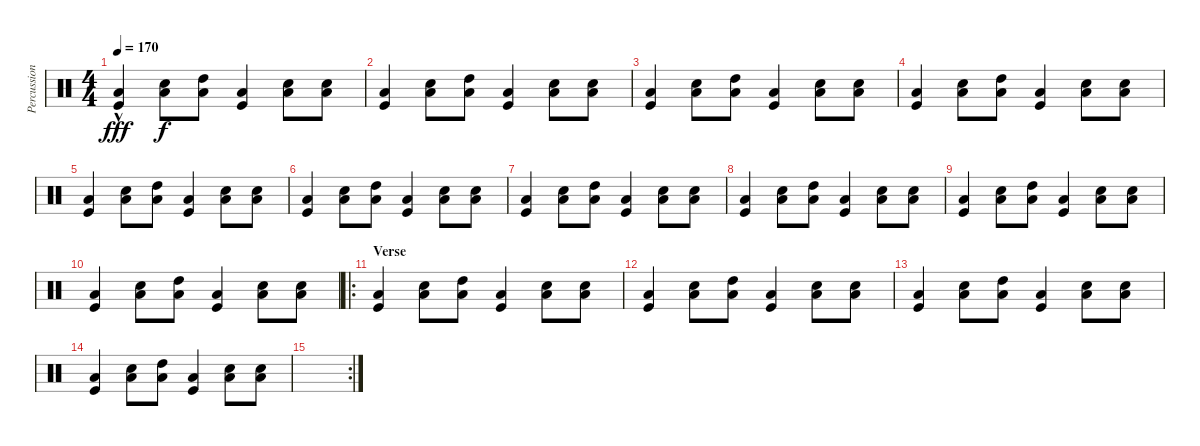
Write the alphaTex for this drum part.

\track ("Percussion" "Percussion") {instrument percussion}
\staff {score}
\articulation defaults
\ts (4 4)
\tempo 170
\clef neutral
\ks c
("Kick (hit)"{hac} "Low Tom (hit)"{hac}).4{dy fff} ("Low Tom (hit)" "Snare (hit) 2").8{dy f} ("Low Tom (hit)" "High Tom (hit)").8 ("Kick (hit)" "Low Tom (hit)").4 ("Low Tom (hit)" "Snare (hit) 2").8 ("Low Tom (hit)" "Snare (hit) 2").8 |
("Kick (hit)" "Low Tom (hit)").4 ("Low Tom (hit)" "Snare (hit) 2").8 ("Low Tom (hit)" "High Tom (hit)").8 ("Kick (hit)" "Low Tom (hit)").4 ("Low Tom (hit)" "Snare (hit) 2").8 ("Low Tom (hit)" "Snare (hit) 2").8 |
("Kick (hit)" "Low Tom (hit)").4 ("Low Tom (hit)" "Snare (hit) 2").8 ("Low Tom (hit)" "High Tom (hit)").8 ("Kick (hit)" "Low Tom (hit)").4 ("Low Tom (hit)" "Snare (hit) 2").8 ("Low Tom (hit)" "Snare (hit) 2").8 |
("Kick (hit)" "Low Tom (hit)").4 ("Low Tom (hit)" "Snare (hit) 2").8 ("Low Tom (hit)" "High Tom (hit)").8 ("Kick (hit)" "Low Tom (hit)").4 ("Low Tom (hit)" "Snare (hit) 2").8 ("Low Tom (hit)" "Snare (hit) 2").8 |
("Kick (hit)" "Low Tom (hit)").4 ("Low Tom (hit)" "Snare (hit) 2").8 ("Low Tom (hit)" "High Tom (hit)").8 ("Kick (hit)" "Low Tom (hit)").4 ("Low Tom (hit)" "Snare (hit) 2").8 ("Low Tom (hit)" "Snare (hit) 2").8 |
("Kick (hit)" "Low Tom (hit)").4 ("Low Tom (hit)" "Snare (hit) 2").8 ("Low Tom (hit)" "High Tom (hit)").8 ("Kick (hit)" "Low Tom (hit)").4 ("Low Tom (hit)" "Snare (hit) 2").8 ("Low Tom (hit)" "Snare (hit) 2").8 |
("Kick (hit)" "Low Tom (hit)").4 ("Low Tom (hit)" "Snare (hit) 2").8 ("Low Tom (hit)" "High Tom (hit)").8 ("Kick (hit)" "Low Tom (hit)").4 ("Low Tom (hit)" "Snare (hit) 2").8 ("Low Tom (hit)" "Snare (hit) 2").8 |
("Kick (hit)" "Low Tom (hit)").4 ("Low Tom (hit)" "Snare (hit) 2").8 ("Low Tom (hit)" "High Tom (hit)").8 ("Kick (hit)" "Low Tom (hit)").4 ("Low Tom (hit)" "Snare (hit) 2").8 ("Low Tom (hit)" "Snare (hit) 2").8 |
("Kick (hit)" "Low Tom (hit)").4 ("Low Tom (hit)" "Snare (hit) 2").8 ("Low Tom (hit)" "High Tom (hit)").8 ("Kick (hit)" "Low Tom (hit)").4 ("Low Tom (hit)" "Snare (hit) 2").8 ("Low Tom (hit)" "Snare (hit) 2").8 |
("Kick (hit)" "Low Tom (hit)").4 ("Low Tom (hit)" "Snare (hit) 2").8 ("Low Tom (hit)" "High Tom (hit)").8 ("Kick (hit)" "Low Tom (hit)").4 ("Low Tom (hit)" "Snare (hit) 2").8 ("Low Tom (hit)" "Snare (hit) 2").8 |
\ro
\section ("" "Verse")
("Kick (hit)" "Low Tom (hit)").4 ("Low Tom (hit)" "Snare (hit) 2").8 ("Low Tom (hit)" "High Tom (hit)").8 ("Kick (hit)" "Low Tom (hit)").4 ("Low Tom (hit)" "Snare (hit) 2").8 ("Low Tom (hit)" "Snare (hit) 2").8 |
("Kick (hit)" "Low Tom (hit)").4 ("Low Tom (hit)" "Snare (hit) 2").8 ("Low Tom (hit)" "High Tom (hit)").8 ("Kick (hit)" "Low Tom (hit)").4 ("Low Tom (hit)" "Snare (hit) 2").8 ("Low Tom (hit)" "Snare (hit) 2").8 |
("Kick (hit)" "Low Tom (hit)").4 ("Low Tom (hit)" "Snare (hit) 2").8 ("Low Tom (hit)" "High Tom (hit)").8 ("Kick (hit)" "Low Tom (hit)").4 ("Low Tom (hit)" "Snare (hit) 2").8 ("Low Tom (hit)" "Snare (hit) 2").8 |
("Kick (hit)" "Low Tom (hit)").4 ("Low Tom (hit)" "Snare (hit) 2").8 ("Low Tom (hit)" "High Tom (hit)").8 ("Kick (hit)" "Low Tom (hit)").4 ("Low Tom (hit)" "Snare (hit) 2").8 ("Low Tom (hit)" "Snare (hit) 2").8 |
\rc 2
